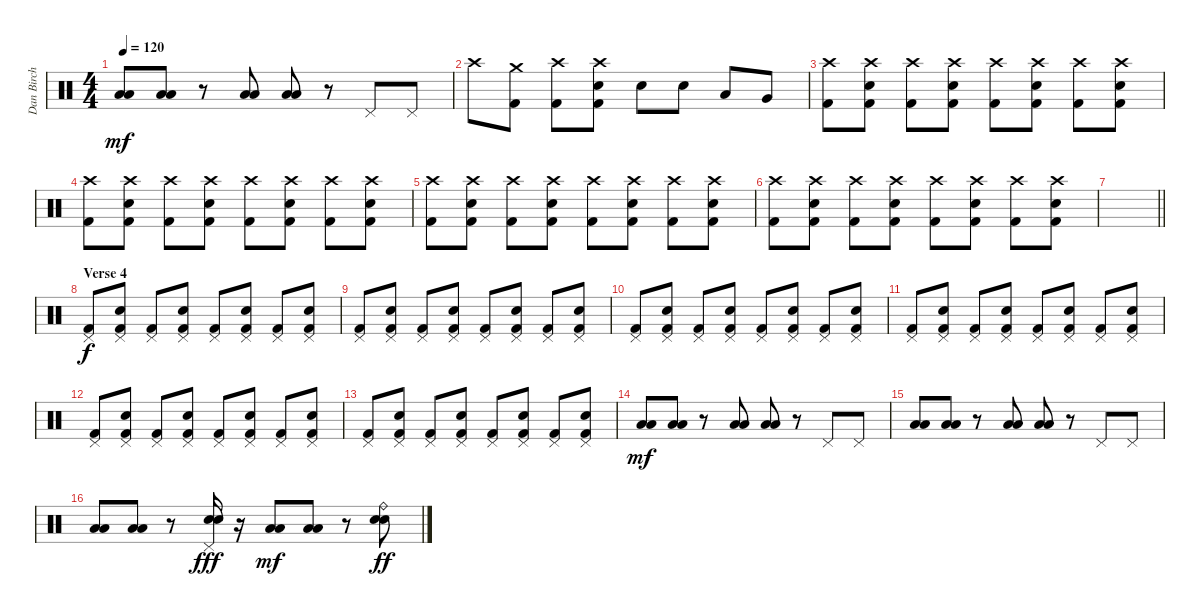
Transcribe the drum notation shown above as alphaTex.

\track ("Dan Birch" "Dan Birch") {instrument percussion}
\staff {score}
\articulation defaults
\ts (4 4)
\tempo 120
\clef neutral
\ks c
("Low Tom (hit)" "Low Floor Tom (hit)").8{dy mf} ("Low Tom (hit)" "Low Floor Tom (hit)").8 r.8 ("Low Tom (hit)" "Low Floor Tom (hit)").8 ("Low Tom (hit)" "Low Floor Tom (hit)").8 r.8 "Pedal Hi-Hat (hit)".8 "Pedal Hi-Hat (hit)".8 |
"Crash high (hit)".8 ("Crash medium (hit)" "Kick (hit) 2").8 ("Crash high (hit)" "Kick (hit) 2").8 ("Crash high (hit)" "Snare (hit) 2" "Kick (hit) 2").8 "Snare (hit) 2".8 "Snare (hit) 2".8 "Low Tom (hit)".8 "Very Low Tom (hit)".8 |
("Crash high (hit)" "Kick (hit) 2").8 ("Crash high (hit)" "Snare (hit) 2" "Kick (hit) 2").8 ("Crash high (hit)" "Kick (hit) 2").8 ("Crash high (hit)" "Snare (hit) 2" "Kick (hit) 2").8 ("Crash high (hit)" "Kick (hit) 2").8 ("Crash high (hit)" "Snare (hit) 2" "Kick (hit) 2").8 ("Crash high (hit)" "Kick (hit) 2").8 ("Crash high (hit)" "Snare (hit) 2" "Kick (hit) 2").8 |
("Crash high (hit)" "Kick (hit) 2").8 ("Crash high (hit)" "Snare (hit) 2" "Kick (hit) 2").8 ("Crash high (hit)" "Kick (hit) 2").8 ("Crash high (hit)" "Snare (hit) 2" "Kick (hit) 2").8 ("Crash high (hit)" "Kick (hit) 2").8 ("Crash high (hit)" "Snare (hit) 2" "Kick (hit) 2").8 ("Crash high (hit)" "Kick (hit) 2").8 ("Crash high (hit)" "Snare (hit) 2" "Kick (hit) 2").8 |
("Crash high (hit)" "Kick (hit) 2").8 ("Crash high (hit)" "Snare (hit) 2" "Kick (hit) 2").8 ("Crash high (hit)" "Kick (hit) 2").8 ("Crash high (hit)" "Snare (hit) 2" "Kick (hit) 2").8 ("Crash high (hit)" "Kick (hit) 2").8 ("Crash high (hit)" "Snare (hit) 2" "Kick (hit) 2").8 ("Crash high (hit)" "Kick (hit) 2").8 ("Crash high (hit)" "Snare (hit) 2" "Kick (hit) 2").8 |
("Crash high (hit)" "Kick (hit) 2").8 ("Crash high (hit)" "Snare (hit) 2" "Kick (hit) 2").8 ("Crash high (hit)" "Kick (hit) 2").8 ("Crash high (hit)" "Snare (hit) 2" "Kick (hit) 2").8 ("Crash high (hit)" "Kick (hit) 2").8 ("Crash high (hit)" "Snare (hit) 2" "Kick (hit) 2").8 ("Crash high (hit)" "Kick (hit) 2").8 ("Crash high (hit)" "Snare (hit) 2" "Kick (hit) 2").8 |
\barLineRight lightlight
|
\section ("" "Verse 4")
("Pedal Hi-Hat (hit)" "Kick (hit) 2").8{dy f} ("Pedal Hi-Hat (hit)" "Snare (hit) 2" "Kick (hit) 2").8 ("Pedal Hi-Hat (hit)" "Kick (hit) 2").8 ("Pedal Hi-Hat (hit)" "Snare (hit) 2" "Kick (hit) 2").8 ("Pedal Hi-Hat (hit)" "Kick (hit) 2").8 ("Pedal Hi-Hat (hit)" "Snare (hit) 2" "Kick (hit) 2").8 ("Pedal Hi-Hat (hit)" "Kick (hit) 2").8 ("Pedal Hi-Hat (hit)" "Snare (hit) 2" "Kick (hit) 2").8 |
("Pedal Hi-Hat (hit)" "Kick (hit) 2").8 ("Pedal Hi-Hat (hit)" "Snare (hit) 2" "Kick (hit) 2").8 ("Pedal Hi-Hat (hit)" "Kick (hit) 2").8 ("Pedal Hi-Hat (hit)" "Snare (hit) 2" "Kick (hit) 2").8 ("Pedal Hi-Hat (hit)" "Kick (hit) 2").8 ("Pedal Hi-Hat (hit)" "Snare (hit) 2" "Kick (hit) 2").8 ("Pedal Hi-Hat (hit)" "Kick (hit) 2").8 ("Pedal Hi-Hat (hit)" "Snare (hit) 2" "Kick (hit) 2").8 |
("Pedal Hi-Hat (hit)" "Kick (hit) 2").8 ("Pedal Hi-Hat (hit)" "Snare (hit) 2" "Kick (hit) 2").8 ("Pedal Hi-Hat (hit)" "Kick (hit) 2").8 ("Pedal Hi-Hat (hit)" "Snare (hit) 2" "Kick (hit) 2").8 ("Pedal Hi-Hat (hit)" "Kick (hit) 2").8 ("Pedal Hi-Hat (hit)" "Snare (hit) 2" "Kick (hit) 2").8 ("Pedal Hi-Hat (hit)" "Kick (hit) 2").8 ("Pedal Hi-Hat (hit)" "Snare (hit) 2" "Kick (hit) 2").8 |
("Pedal Hi-Hat (hit)" "Kick (hit) 2").8 ("Pedal Hi-Hat (hit)" "Snare (hit) 2" "Kick (hit) 2").8 ("Pedal Hi-Hat (hit)" "Kick (hit) 2").8 ("Pedal Hi-Hat (hit)" "Snare (hit) 2" "Kick (hit) 2").8 ("Pedal Hi-Hat (hit)" "Kick (hit) 2").8 ("Pedal Hi-Hat (hit)" "Snare (hit) 2" "Kick (hit) 2").8 ("Pedal Hi-Hat (hit)" "Kick (hit) 2").8 ("Pedal Hi-Hat (hit)" "Snare (hit) 2" "Kick (hit) 2").8 |
("Pedal Hi-Hat (hit)" "Kick (hit) 2").8 ("Pedal Hi-Hat (hit)" "Snare (hit) 2" "Kick (hit) 2").8 ("Pedal Hi-Hat (hit)" "Kick (hit) 2").8 ("Pedal Hi-Hat (hit)" "Snare (hit) 2" "Kick (hit) 2").8 ("Pedal Hi-Hat (hit)" "Kick (hit) 2").8 ("Pedal Hi-Hat (hit)" "Snare (hit) 2" "Kick (hit) 2").8 ("Pedal Hi-Hat (hit)" "Kick (hit) 2").8 ("Pedal Hi-Hat (hit)" "Snare (hit) 2" "Kick (hit) 2").8 |
("Pedal Hi-Hat (hit)" "Kick (hit) 2").8 ("Pedal Hi-Hat (hit)" "Snare (hit) 2" "Kick (hit) 2").8 ("Pedal Hi-Hat (hit)" "Kick (hit) 2").8 ("Pedal Hi-Hat (hit)" "Snare (hit) 2" "Kick (hit) 2").8 ("Pedal Hi-Hat (hit)" "Kick (hit) 2").8 ("Pedal Hi-Hat (hit)" "Snare (hit) 2" "Kick (hit) 2").8 ("Pedal Hi-Hat (hit)" "Kick (hit) 2").8 ("Pedal Hi-Hat (hit)" "Snare (hit) 2" "Kick (hit) 2").8 |
("Low Tom (hit)" "Low Floor Tom (hit)").8{dy mf} ("Low Tom (hit)" "Low Floor Tom (hit)").8 r.8 ("Low Tom (hit)" "Low Floor Tom (hit)").8 ("Low Tom (hit)" "Low Floor Tom (hit)").8 r.8 "Pedal Hi-Hat (hit)".8 "Pedal Hi-Hat (hit)".8 |
("Low Tom (hit)" "Low Floor Tom (hit)").8 ("Low Tom (hit)" "Low Floor Tom (hit)").8 r.8 ("Low Tom (hit)" "Low Floor Tom (hit)").8 ("Low Tom (hit)" "Low Floor Tom (hit)").8 r.8 "Pedal Hi-Hat (hit)".8 "Pedal Hi-Hat (hit)".8 |
("Low Tom (hit)" "Low Floor Tom (hit)").8 ("Low Tom (hit)" "Low Floor Tom (hit)").8 r.8 ("Pedal Hi-Hat (hit)" "Snare (hit) 2" "Snare (hit) 2").16{dy fff} r.16 ("Low Tom (hit)" "Low Floor Tom (hit)").8{dy mf} ("Low Tom (hit)" "Low Floor Tom (hit)").8 r.8 ("Ride (bell)" "Snare (hit) 2" "Snare (hit) 2").8{dy ff}
